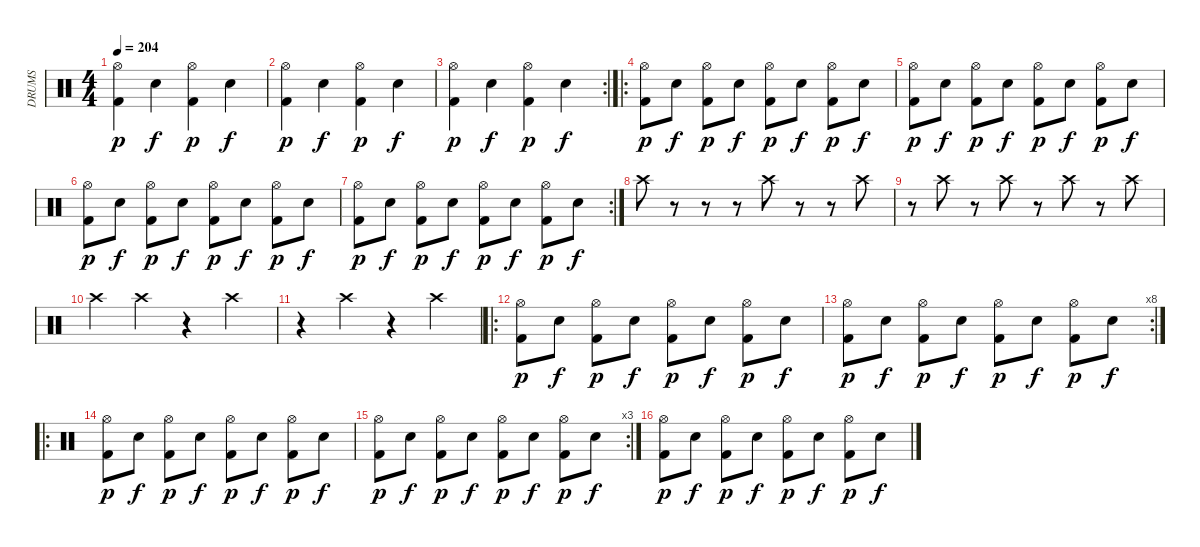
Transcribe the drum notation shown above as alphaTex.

\track ("DRUMS" "DRUMS") {instrument percussion}
\staff {score}
\articulation defaults
\ts (4 4)
\tempo 204
\clef neutral
\ks c
("Kick (hit) 2" "Hi-Hat (open)").4{dy p} "Electric Snare (hit)".4{dy f} ("Kick (hit) 2" "Hi-Hat (open)").4{dy p} "Electric Snare (hit)".4{dy f} |
("Kick (hit) 2" "Hi-Hat (open)").4{dy p} "Electric Snare (hit)".4{dy f} ("Kick (hit) 2" "Hi-Hat (open)").4{dy p} "Electric Snare (hit)".4{dy f} |
\rc 2
("Kick (hit) 2" "Hi-Hat (open)").4{dy p} "Electric Snare (hit)".4{dy f} ("Kick (hit) 2" "Hi-Hat (open)").4{dy p} "Electric Snare (hit)".4{dy f} |
\ro
("Kick (hit) 2" "Hi-Hat (open)").8{dy p} "Electric Snare (hit)".8{dy f} ("Kick (hit) 2" "Hi-Hat (open)").8{dy p} "Electric Snare (hit)".8{dy f} ("Kick (hit) 2" "Hi-Hat (open)").8{dy p} "Electric Snare (hit)".8{dy f} ("Kick (hit) 2" "Hi-Hat (open)").8{dy p} "Electric Snare (hit)".8{dy f} |
("Kick (hit) 2" "Hi-Hat (open)").8{dy p} "Electric Snare (hit)".8{dy f} ("Kick (hit) 2" "Hi-Hat (open)").8{dy p} "Electric Snare (hit)".8{dy f} ("Kick (hit) 2" "Hi-Hat (open)").8{dy p} "Electric Snare (hit)".8{dy f} ("Kick (hit) 2" "Hi-Hat (open)").8{dy p} "Electric Snare (hit)".8{dy f} |
("Kick (hit) 2" "Hi-Hat (open)").8{dy p} "Electric Snare (hit)".8{dy f} ("Kick (hit) 2" "Hi-Hat (open)").8{dy p} "Electric Snare (hit)".8{dy f} ("Kick (hit) 2" "Hi-Hat (open)").8{dy p} "Electric Snare (hit)".8{dy f} ("Kick (hit) 2" "Hi-Hat (open)").8{dy p} "Electric Snare (hit)".8{dy f} |
\rc 2
("Kick (hit) 2" "Hi-Hat (open)").8{dy p} "Electric Snare (hit)".8{dy f} ("Kick (hit) 2" "Hi-Hat (open)").8{dy p} "Electric Snare (hit)".8{dy f} ("Kick (hit) 2" "Hi-Hat (open)").8{dy p} "Electric Snare (hit)".8{dy f} ("Kick (hit) 2" "Hi-Hat (open)").8{dy p} "Electric Snare (hit)".8{dy f} |
"Crash high (hit)".8 r.8 r.8 r.8 "Crash high (hit)".8 r.8 r.8 "Crash high (hit)".8 |
r.8 "Crash high (hit)".8 r.8 "Crash high (hit)".8 r.8 "Crash high (hit)".8 r.8 "Crash high (hit)".8 |
"Crash high (hit)".4 "Crash high (hit)".4 r.4 "Crash high (hit)".4 |
r.4 "Crash high (hit)".4 r.4 "Crash high (hit)".4 |
\ro
("Kick (hit) 2" "Hi-Hat (open)").8{dy p} "Electric Snare (hit)".8{dy f} ("Kick (hit) 2" "Hi-Hat (open)").8{dy p} "Electric Snare (hit)".8{dy f} ("Kick (hit) 2" "Hi-Hat (open)").8{dy p} "Electric Snare (hit)".8{dy f} ("Kick (hit) 2" "Hi-Hat (open)").8{dy p} "Electric Snare (hit)".8{dy f} |
\rc 8
("Kick (hit) 2" "Hi-Hat (open)").8{dy p} "Electric Snare (hit)".8{dy f} ("Kick (hit) 2" "Hi-Hat (open)").8{dy p} "Electric Snare (hit)".8{dy f} ("Kick (hit) 2" "Hi-Hat (open)").8{dy p} "Electric Snare (hit)".8{dy f} ("Kick (hit) 2" "Hi-Hat (open)").8{dy p} "Electric Snare (hit)".8{dy f} |
\ro
("Kick (hit) 2" "Hi-Hat (open)").8{dy p} "Electric Snare (hit)".8{dy f} ("Kick (hit) 2" "Hi-Hat (open)").8{dy p} "Electric Snare (hit)".8{dy f} ("Kick (hit) 2" "Hi-Hat (open)").8{dy p} "Electric Snare (hit)".8{dy f} ("Kick (hit) 2" "Hi-Hat (open)").8{dy p} "Electric Snare (hit)".8{dy f} |
\rc 3
("Kick (hit) 2" "Hi-Hat (open)").8{dy p} "Electric Snare (hit)".8{dy f} ("Kick (hit) 2" "Hi-Hat (open)").8{dy p} "Electric Snare (hit)".8{dy f} ("Kick (hit) 2" "Hi-Hat (open)").8{dy p} "Electric Snare (hit)".8{dy f} ("Kick (hit) 2" "Hi-Hat (open)").8{dy p} "Electric Snare (hit)".8{dy f} |
("Kick (hit) 2" "Hi-Hat (open)").8{dy p} "Electric Snare (hit)".8{dy f} ("Kick (hit) 2" "Hi-Hat (open)").8{dy p} "Electric Snare (hit)".8{dy f} ("Kick (hit) 2" "Hi-Hat (open)").8{dy p} "Electric Snare (hit)".8{dy f} ("Kick (hit) 2" "Hi-Hat (open)").8{dy p} "Electric Snare (hit)".8{dy f}
